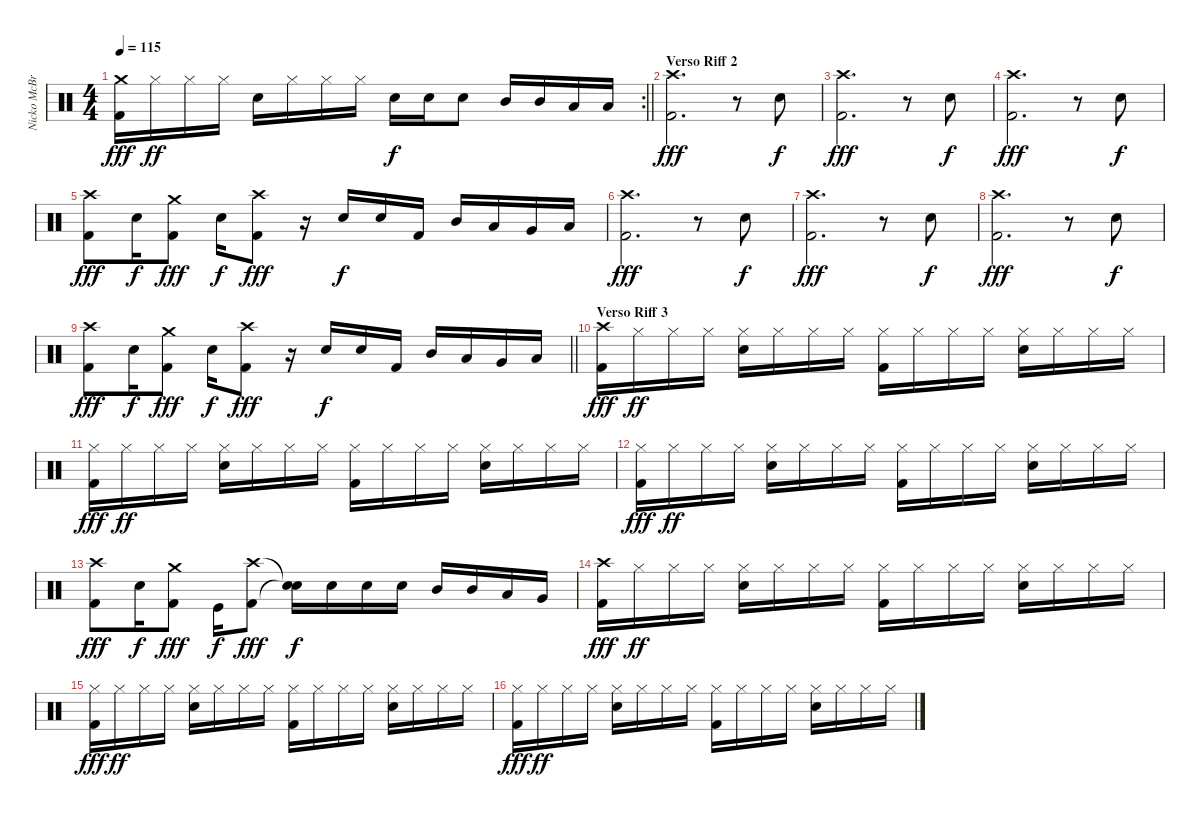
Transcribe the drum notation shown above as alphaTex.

\track ("Nicko McBrain" "Nicko McBr") {instrument percussion}
\staff {score}
\articulation defaults
\rc 2
\ts (4 4)
\tempo 115
\clef neutral
\barLineRight lightlight
\ks c
("Kick (hit) 2" "Crash medium (hit)").16{dy fff} "Hi-Hat (closed)".16{dy ff} "Hi-Hat (closed)".16 "Hi-Hat (closed)".16 "Snare (hit) 2".16 "Hi-Hat (closed)".16 "Hi-Hat (closed)".16 "Hi-Hat (closed)".16 "Snare (hit) 2".16{dy f} "Snare (hit) 2".16 "Snare (hit) 2".8 "Mid Tom (hit)".16 "Mid Tom (hit)".16 "Low Tom (hit)".16 "Low Tom (hit)".16 |
\section ("" "Verso Riff 2")
("Kick (hit) 2" "Crash high (hit)").2{d dy fff} r.8 "Snare (hit) 2".8{dy f} |
("Kick (hit) 2" "Crash high (hit)").2{d dy fff} r.8 "Snare (hit) 2".8{dy f} |
("Kick (hit) 2" "Crash high (hit)").2{d dy fff} r.8 "Snare (hit) 2".8{dy f} |
("Kick (hit) 2" "Crash high (hit)").8{dy fff} "Snare (hit) 2".16{dy f} ("Kick (hit) 2" "Crash medium (hit)").8{dy fff} "Snare (hit) 2".16{dy f} ("Kick (hit) 2" "Crash high (hit)").8{dy fff} r.16 "Snare (hit) 2".16{dy f} "Snare (hit) 2".16 "Kick (hit) 2".16 "Mid Tom (hit)".16 "Low Tom (hit)".16 "Very Low Tom (hit)".16 "Low Floor Tom (hit)".16 |
("Kick (hit) 2" "Crash high (hit)").2{d dy fff} r.8 "Snare (hit) 2".8{dy f} |
("Kick (hit) 2" "Crash high (hit)").2{d dy fff} r.8 "Snare (hit) 2".8{dy f} |
("Kick (hit) 2" "Crash high (hit)").2{d dy fff} r.8 "Snare (hit) 2".8{dy f} |
\barLineRight lightlight
("Kick (hit) 2" "Crash high (hit)").8{dy fff} "Snare (hit) 2".16{dy f} ("Kick (hit) 2" "Crash medium (hit)").8{dy fff} "Snare (hit) 2".16{dy f} ("Kick (hit) 2" "Crash high (hit)").8{dy fff} r.16 "Snare (hit) 2".16{dy f} "Snare (hit) 2".16 "Kick (hit) 2".16 "Mid Tom (hit)".16 "Low Tom (hit)".16 "Very Low Tom (hit)".16 "Low Floor Tom (hit)".16 |
\section ("" "Verso Riff 3")
("Kick (hit) 2" "Crash high (hit)").16{dy fff} "Hi-Hat (closed)".16{dy ff} "Hi-Hat (closed)".16 "Hi-Hat (closed)".16 ("Snare (hit) 2" "Hi-Hat (closed)").16 "Hi-Hat (closed)".16 "Hi-Hat (closed)".16 "Hi-Hat (closed)".16 ("Kick (hit) 2" "Hi-Hat (closed)").16 "Hi-Hat (closed)".16 "Hi-Hat (closed)".16 "Hi-Hat (closed)".16 ("Snare (hit) 2" "Hi-Hat (closed)").16 "Hi-Hat (closed)".16 "Hi-Hat (closed)".16 "Hi-Hat (closed)".16 |
("Kick (hit) 2" "Hi-Hat (closed)").16{dy fff} "Hi-Hat (closed)".16{dy ff} "Hi-Hat (closed)".16 "Hi-Hat (closed)".16 ("Snare (hit) 2" "Hi-Hat (closed)").16 "Hi-Hat (closed)".16 "Hi-Hat (closed)".16 "Hi-Hat (closed)".16 ("Kick (hit) 2" "Hi-Hat (closed)").16 "Hi-Hat (closed)".16 "Hi-Hat (closed)".16 "Hi-Hat (closed)".16 ("Snare (hit) 2" "Hi-Hat (closed)").16 "Hi-Hat (closed)".16 "Hi-Hat (closed)".16 "Hi-Hat (closed)".16 |
("Kick (hit) 2" "Hi-Hat (closed)").16{dy fff} "Hi-Hat (closed)".16{dy ff} "Hi-Hat (closed)".16 "Hi-Hat (closed)".16 ("Snare (hit) 2" "Hi-Hat (closed)").16 "Hi-Hat (closed)".16 "Hi-Hat (closed)".16 "Hi-Hat (closed)".16 ("Kick (hit) 2" "Hi-Hat (closed)").16 "Hi-Hat (closed)".16 "Hi-Hat (closed)".16 "Hi-Hat (closed)".16 ("Snare (hit) 2" "Hi-Hat (closed)").16 "Hi-Hat (closed)".16 "Hi-Hat (closed)".16 "Hi-Hat (closed)".16 |
("Kick (hit) 2" "Crash high (hit)").8{dy fff} "Snare (hit) 2".16{dy f} ("Kick (hit) 2" "Crash medium (hit)").8{dy fff} "Kick (hit)".16{dy f} ("Kick (hit) 2" "Crash high (hit)").8{dy fff} ("Snare (hit)"{t} "Snare (hit)"{t}).16{dy f} "Snare (hit) 2".16 "Snare (hit) 2".16 "Snare (hit) 2".16 "Mid Tom (hit)".16 "Mid Tom (hit)".16 "Low Tom (hit)".16 "Very Low Tom (hit)".16 |
("Kick (hit) 2" "Crash high (hit)").16{dy fff} "Hi-Hat (closed)".16{dy ff} "Hi-Hat (closed)".16 "Hi-Hat (closed)".16 ("Snare (hit) 2" "Hi-Hat (closed)").16 "Hi-Hat (closed)".16 "Hi-Hat (closed)".16 "Hi-Hat (closed)".16 ("Kick (hit) 2" "Hi-Hat (closed)").16 "Hi-Hat (closed)".16 "Hi-Hat (closed)".16 "Hi-Hat (closed)".16 ("Snare (hit) 2" "Hi-Hat (closed)").16 "Hi-Hat (closed)".16 "Hi-Hat (closed)".16 "Hi-Hat (closed)".16 |
("Kick (hit) 2" "Hi-Hat (closed)").16{dy fff} "Hi-Hat (closed)".16{dy ff} "Hi-Hat (closed)".16 "Hi-Hat (closed)".16 ("Snare (hit) 2" "Hi-Hat (closed)").16 "Hi-Hat (closed)".16 "Hi-Hat (closed)".16 "Hi-Hat (closed)".16 ("Kick (hit) 2" "Hi-Hat (closed)").16 "Hi-Hat (closed)".16 "Hi-Hat (closed)".16 "Hi-Hat (closed)".16 ("Snare (hit) 2" "Hi-Hat (closed)").16 "Hi-Hat (closed)".16 "Hi-Hat (closed)".16 "Hi-Hat (closed)".16 |
("Kick (hit) 2" "Hi-Hat (closed)").16{dy fff} "Hi-Hat (closed)".16{dy ff} "Hi-Hat (closed)".16 "Hi-Hat (closed)".16 ("Snare (hit) 2" "Hi-Hat (closed)").16 "Hi-Hat (closed)".16 "Hi-Hat (closed)".16 "Hi-Hat (closed)".16 ("Kick (hit) 2" "Hi-Hat (closed)").16 "Hi-Hat (closed)".16 "Hi-Hat (closed)".16 "Hi-Hat (closed)".16 ("Snare (hit) 2" "Hi-Hat (closed)").16 "Hi-Hat (closed)".16 "Hi-Hat (closed)".16 "Hi-Hat (closed)".16
